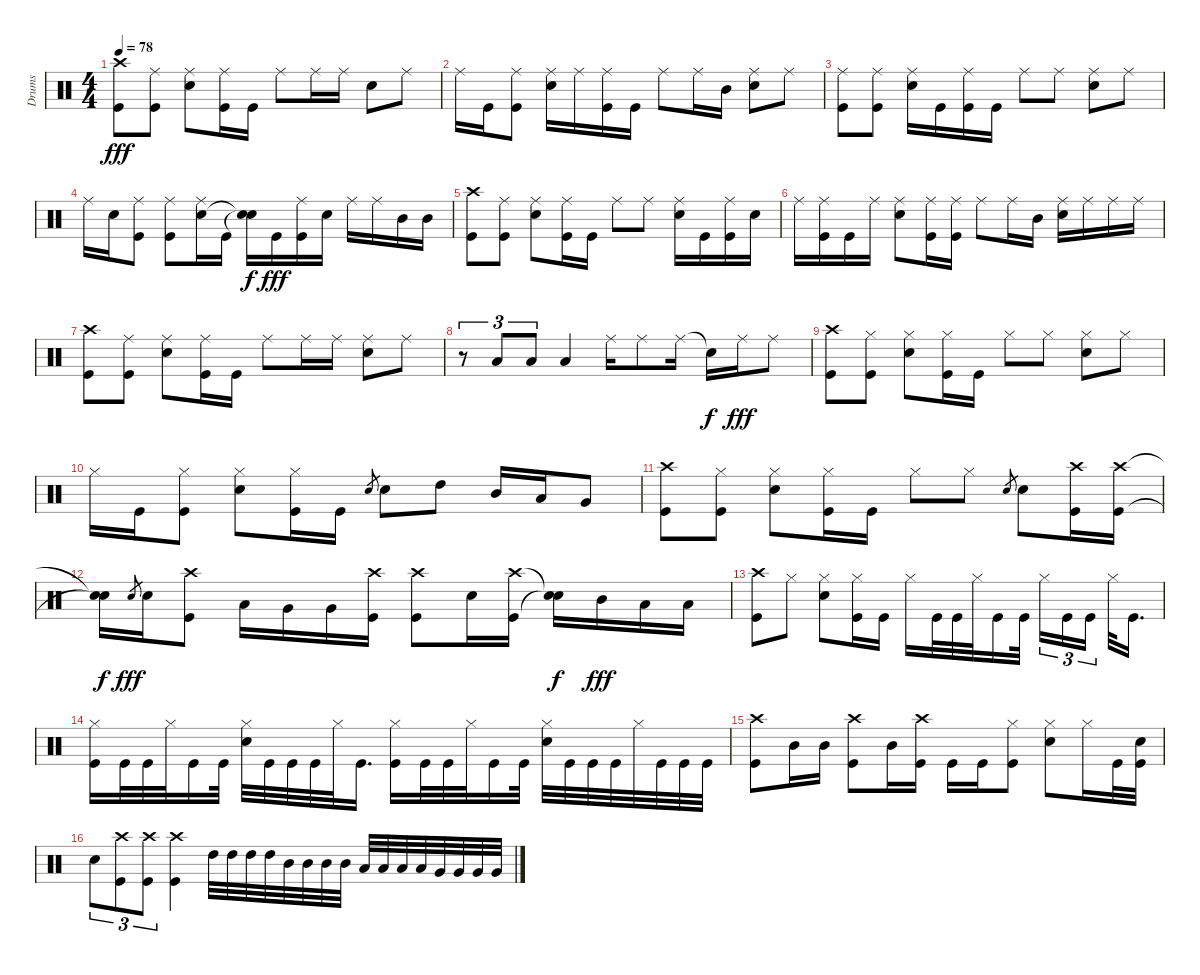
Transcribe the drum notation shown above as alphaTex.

\track ("Drums" "Drums") {instrument percussion}
\staff {score}
\articulation defaults
\ts (4 4)
\tempo 78
\clef neutral
\ks c
("Crash high (hit)" "Kick (hit)").8{dy fff} ("Ride (middle)" "Kick (hit)").8 ("Ride (middle)" "Snare (hit) 2").8 ("Ride (middle)" "Kick (hit)").16 "Kick (hit)".16 "Ride (middle)".8 "Ride (middle)".16 "Ride (middle)".16 "Snare (hit) 2".8 "Ride (middle)".8 |
"Ride (middle)".16 "Kick (hit)".16 ("Ride (middle)" "Kick (hit)").8 ("Ride (middle)" "Snare (hit) 2").16 "Ride (middle)".16 ("Ride (middle)" "Kick (hit)").16 "Kick (hit)".16 "Ride (middle)".8 "Ride (middle)".16 "Mid Tom (hit)".16 ("Ride (middle)" "Snare (hit) 2").8 "Ride (middle)".8 |
("Ride (middle)" "Kick (hit)").8 ("Ride (middle)" "Kick (hit)").8 ("Ride (middle)" "Snare (hit) 2").16 "Kick (hit)".16 ("Ride (middle)" "Kick (hit)").16 "Kick (hit)".16 "Ride (middle)".8 "Ride (middle)".8 ("Ride (middle)" "Snare (hit) 2").8 "Ride (middle)".8 |
"Ride (middle)".16 "Snare (hit) 2".16 ("Ride (middle)" "Kick (hit)").8 ("Ride (middle)" "Kick (hit)").8 ("Ride (middle)" "Snare (hit) 2").16 "Kick (hit)".16 ("Snare (hit)"{t} "Snare (hit)"{t}).16{dy f} "Kick (hit)".16{dy fff} ("Ride (middle)" "Kick (hit)").16 "Snare (hit) 2".16 "Ride (middle)".16 "Ride (middle)".16 "Mid Tom (hit)".16 "Mid Tom (hit)".16 |
("Crash high (hit)" "Kick (hit)").8 ("Ride (middle)" "Kick (hit)").8 ("Ride (middle)" "Snare (hit) 2").8 ("Ride (middle)" "Kick (hit)").16 "Kick (hit)".16 "Ride (middle)".8 "Ride (middle)".8 ("Ride (middle)" "Snare (hit) 2").16 "Kick (hit)".16 ("Ride (middle)" "Kick (hit)").16 "Snare (hit) 2".16 |
"Ride (middle)".16 ("Ride (middle)" "Kick (hit)").16 "Kick (hit)".16 "Ride (middle)".16 ("Ride (middle)" "Snare (hit) 2").8 ("Ride (middle)" "Kick (hit)").16 ("Ride (middle)" "Kick (hit)").16 "Ride (middle)".8 "Ride (middle)".16 "Mid Tom (hit)".16 ("Ride (middle)" "Snare (hit) 2").16 "Ride (middle)".16 "Ride (middle)".16 "Ride (middle)".16 |
("Crash high (hit)" "Kick (hit)").8 ("Ride (middle)" "Kick (hit)").8 ("Ride (middle)" "Snare (hit) 2").8 ("Ride (middle)" "Kick (hit)").16 "Kick (hit)".16 "Ride (middle)".8 "Ride (middle)".16 "Ride (middle)".16 ("Ride (middle)" "Snare (hit) 2").8 "Ride (middle)".8 |
r.8{tu (3 2)} "Low Tom (hit)".8{tu (3 2)} "Low Tom (hit)".8{tu (3 2)} "Low Tom (hit)".4 "Ride (middle)".16 "Ride (middle)".8 "Ride (middle)".16 "Snare (hit)"{t}.16{dy f} "Ride (middle)".16{dy fff} "Ride (middle)".8 |
("Crash high (hit)" "Kick (hit)").8 ("Hi-Hat (closed)" "Kick (hit)").8 ("Hi-Hat (closed)" "Snare (hit) 2").8 ("Hi-Hat (closed)" "Kick (hit)").16 "Kick (hit)".16 "Hi-Hat (closed)".8 "Hi-Hat (closed)".8 ("Hi-Hat (closed)" "Snare (hit) 2").8 "Hi-Hat (closed)".8 |
"Hi-Hat (closed)".16 "Kick (hit)".16 ("Hi-Hat (closed)" "Kick (hit)").8 ("Hi-Hat (closed)" "Snare (hit) 2").8 ("Hi-Hat (closed)" "Kick (hit)").16 "Kick (hit)".16 "Snare (hit) 2".8{gr} "Snare (hit) 2".8 "High Tom (hit)".8 "Mid Tom (hit)".16 "Low Tom (hit)".16 "Very Low Tom (hit)".8 |
("Crash high (hit)" "Kick (hit)").8 ("Hi-Hat (closed)" "Kick (hit)").8 ("Hi-Hat (closed)" "Snare (hit) 2").8 ("Hi-Hat (closed)" "Kick (hit)").16 "Kick (hit)".16 "Hi-Hat (closed)".8 "Hi-Hat (closed)".8 "Snare (hit) 2".8{gr} "Snare (hit) 2".8 ("Crash high (hit)" "Kick (hit)").16 ("Crash high (hit)" "Kick (hit)").16 |
("Snare (hit)"{t} "Snare (hit)"{t}).16{dy f} "Snare (hit) 2".8{gr dy fff} "Snare (hit) 2".16 ("Crash high (hit)" "Kick (hit)").8 "Low Tom (hit)".16 "Very Low Tom (hit)".16 "Very Low Tom (hit)".16 ("Crash high (hit)" "Kick (hit)").16 ("Crash high (hit)" "Kick (hit)").8 "Snare (hit) 2".16 ("Crash high (hit)" "Kick (hit)").16 ("Snare (hit)"{t} "Snare (hit)"{t}).16{dy f} "Mid Tom (hit)".16{dy fff} "Low Tom (hit)".16 "Low Tom (hit)".16 |
("Crash high (hit)" "Kick (hit)").8 "Hi-Hat (closed)".8 ("Hi-Hat (closed)" "Snare (hit) 2").8 ("Hi-Hat (closed)" "Kick (hit)").16 "Kick (hit)".16 "Hi-Hat (closed)".16 "Kick (hit)".32 "Kick (hit)".32 "Hi-Hat (closed)".32 "Kick (hit)".16 "Kick (hit)".32 "Hi-Hat (closed)".16{tu (3 2)} "Kick (hit)".16{tu (3 2)} "Kick (hit)".16{tu (3 2)} "Hi-Hat (closed)".32 "Kick (hit)".16{d} |
("Hi-Hat (closed)" "Kick (hit)").16 "Kick (hit)".32 "Kick (hit)".32 "Hi-Hat (closed)".32 "Kick (hit)".16 "Kick (hit)".32 ("Hi-Hat (closed)" "Snare (hit) 2").32 "Kick (hit)".32 "Kick (hit)".32 "Kick (hit)".32 "Hi-Hat (closed)".32 "Kick (hit)".16{d} ("Hi-Hat (closed)" "Kick (hit)").16 "Kick (hit)".32 "Kick (hit)".32 "Hi-Hat (closed)".32 "Kick (hit)".16 "Kick (hit)".32 ("Hi-Hat (closed)" "Snare (hit) 2").32 "Kick (hit)".32 "Kick (hit)".32 "Kick (hit)".32 "Hi-Hat (closed)".32 "Kick (hit)".32 "Kick (hit)".32 "Kick (hit)".32 |
("Crash high (hit)" "Kick (hit)").8 "Mid Tom (hit)".16 "Mid Tom (hit)".16 ("Crash high (hit)" "Kick (hit)").8 "Mid Tom (hit)".16 ("Crash high (hit)" "Kick (hit)").16 "Kick (hit)".16 "Kick (hit)".16 ("Hi-Hat (closed)" "Kick (hit)").8 ("Hi-Hat (closed)" "Snare (hit) 2").8 "Hi-Hat (closed)".16 "Kick (hit)".32 ("Snare (hit) 2" "Kick (hit)").32 |
"Snare (hit) 2".8{tu (3 2)} ("Crash high (hit)" "Kick (hit)").8{tu (3 2)} ("Crash high (hit)" "Kick (hit)").8{tu (3 2)} ("Crash high (hit)" "Kick (hit)").4 "High Tom (hit)".32 "High Tom (hit)".32 "High Tom (hit)".32 "High Tom (hit)".32 "Mid Tom (hit)".32 "Mid Tom (hit)".32 "Mid Tom (hit)".32 "Mid Tom (hit)".32 "Low Tom (hit)".32 "Low Tom (hit)".32 "Low Tom (hit)".32 "Low Tom (hit)".32 "Very Low Tom (hit)".32 "Very Low Tom (hit)".32 "Very Low Tom (hit)".32 "Very Low Tom (hit)".32
